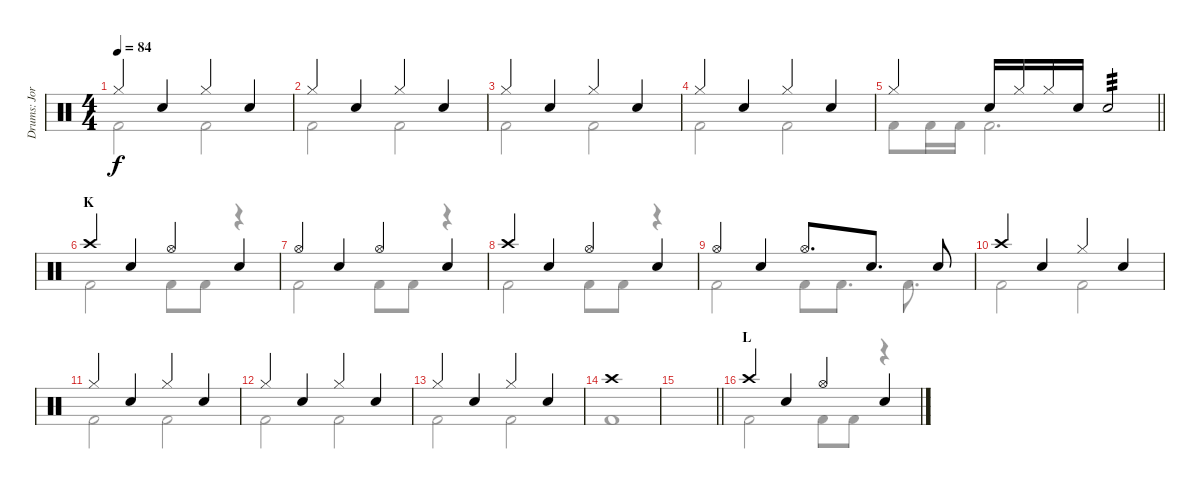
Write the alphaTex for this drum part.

\track ("Drums: Jorg" "Drums: Jor") {instrument percussion}
\staff {score}
\articulation defaults
\voice
\ts (4 4)
\tempo 84
\clef neutral
\ks c "Hi-Hat (closed)".4{dy f} "Snare (hit) 2".4 "Hi-Hat (closed)".4 "Snare (hit) 2".4
|
"Hi-Hat (closed)".4 "Snare (hit) 2".4 "Hi-Hat (closed)".4 "Snare (hit) 2".4 |
"Hi-Hat (closed)".4 "Snare (hit) 2".4 "Hi-Hat (closed)".4 "Snare (hit) 2".4 |
"Hi-Hat (closed)".4 "Snare (hit) 2".4 "Hi-Hat (closed)".4 "Snare (hit) 2".4 |
\barLineRight lightlight "Hi-Hat (closed)".4 "Snare (hit) 2".16 "Hi-Hat (closed)".16 "Hi-Hat (closed)".16 "Snare (hit) 2".16 "Snare (hit) 2".2{tp 3}
|
\section ("" "K")
"Crash high (hit)".4 "Snare (hit) 2".4 "Hi-Hat (open)".4 "Snare (hit) 2".4 |
"Hi-Hat (open)".4 "Snare (hit) 2".4 "Hi-Hat (open)".4 "Snare (hit) 2".4 |
"Crash high (hit)".4 "Snare (hit) 2".4 "Hi-Hat (open)".4 "Snare (hit) 2".4 |
"Hi-Hat (open)".4 "Snare (hit) 2".4 "Hi-Hat (open)".8{d} "Snare (hit) 2".8{d} "Snare (hit) 2".8 |
"Crash high (hit)".4 "Snare (hit) 2".4 "Hi-Hat (closed)".4 "Snare (hit) 2".4 |
"Hi-Hat (closed)".4 "Snare (hit) 2".4 "Hi-Hat (closed)".4 "Snare (hit) 2".4 |
"Hi-Hat (closed)".4 "Snare (hit) 2".4 "Hi-Hat (closed)".4 "Snare (hit) 2".4 |
"Hi-Hat (closed)".4 "Snare (hit) 2".4 "Hi-Hat (closed)".4 "Snare (hit) 2".4 |
"Crash high (hit)".1 |
\barLineRight lightlight
|
\section ("" "L")
"Crash high (hit)".4 "Snare (hit) 2".4 "Hi-Hat (open)".4 "Snare (hit) 2".4
\voice
\clef neutral
\ottava regular
\simile none
\ks c "Kick (hit) 2".2{dy f} "Kick (hit) 2".2
|
"Kick (hit) 2".2 "Kick (hit) 2".2 |
"Kick (hit) 2".2 "Kick (hit) 2".2 |
"Kick (hit) 2".2 "Kick (hit) 2".2 |
\barLineRight lightlight "Kick (hit) 2".8 "Kick (hit) 2".16 "Kick (hit) 2".16 "Kick (hit) 2".2{d}
|
"Kick (hit) 2".2 "Kick (hit) 2".8 "Kick (hit) 2".8 r.4 |
"Kick (hit) 2".2 "Kick (hit) 2".8 "Kick (hit) 2".8 r.4 |
"Kick (hit) 2".2 "Kick (hit) 2".8 "Kick (hit) 2".8 r.4 |
"Kick (hit) 2".2 "Kick (hit) 2".8 "Kick (hit) 2".8{d} "Kick (hit) 2".8{d} |
"Kick (hit) 2".2 "Kick (hit) 2".2 |
"Kick (hit) 2".2 "Kick (hit) 2".2 |
"Kick (hit) 2".2 "Kick (hit) 2".2 |
"Kick (hit) 2".2 "Kick (hit) 2".2 |
"Kick (hit) 2".1 |
\barLineRight lightlight
|
"Kick (hit) 2".2 "Kick (hit) 2".8 "Kick (hit) 2".8 r.4
